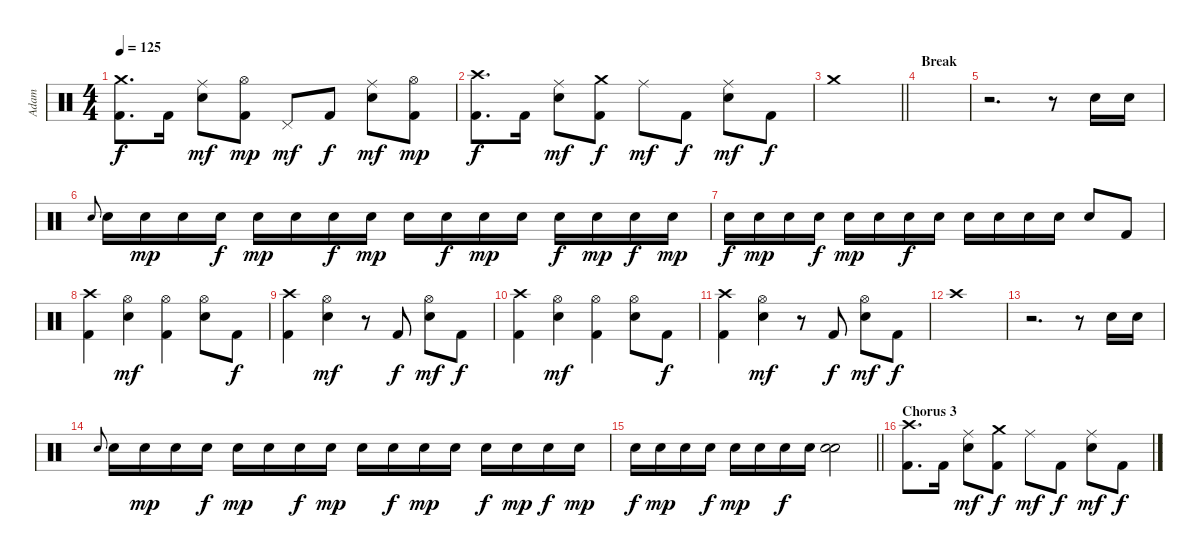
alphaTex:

\track ("Adam" "Adam") {instrument percussion}
\staff {score}
\articulation defaults
\ts (4 4)
\tempo 125
\clef neutral
\ks c
("Crash medium (hit)" "Kick (hit) 2").8{d dy f} "Kick (hit) 2".16 ("Ride (middle)" "Electric Snare (hit)").8{dy mf} ("Hi-Hat (open)" "Kick (hit) 2").8{dy mp} "Pedal Hi-Hat (hit)".8{dy mf} "Kick (hit) 2".8{dy f} ("Ride (middle)" "Electric Snare (hit)").8{dy mf} ("Hi-Hat (open)" "Kick (hit) 2").8{dy mp} |
("Crash high (hit)" "Kick (hit) 2").8{d dy f} "Kick (hit) 2".16 ("Ride (middle)" "Electric Snare (hit)").8{dy mf} ("Crash medium (hit)" "Kick (hit) 2").8{dy f} "Ride (middle)".8{dy mf} "Kick (hit) 2".8{dy f} ("Ride (middle)" "Electric Snare (hit)").8{dy mf} "Kick (hit) 2".8{dy f} |
\barLineRight lightlight "Crash medium (hit)".1
|
\section ("" "Break ")
|
r.2{d volume 11} r.8 "Electric Snare (hit)".16 "Electric Snare (hit)".16 |
"Electric Snare (hit)"{h}.8{gr onbeat} "Electric Snare (hit)".16 "Electric Snare (hit)".16{dy mp} "Electric Snare (hit)".16 "Electric Snare (hit)".16{dy f} "Electric Snare (hit)".16{dy mp} "Electric Snare (hit)".16 "Electric Snare (hit)".16{dy f} "Electric Snare (hit)".16{dy mp} "Electric Snare (hit)".16 "Electric Snare (hit)".16{dy f} "Electric Snare (hit)".16{dy mp} "Electric Snare (hit)".16 "Electric Snare (hit)".16{dy f} "Electric Snare (hit)".16{dy mp} "Electric Snare (hit)".16{dy f} "Electric Snare (hit)".16{dy mp} |
"Electric Snare (hit)".16{dy f volume 14} "Electric Snare (hit)".16{dy mp} "Electric Snare (hit)".16 "Electric Snare (hit)".16{dy f} "Electric Snare (hit)".16{dy mp} "Electric Snare (hit)".16 "Electric Snare (hit)".16{dy f} "Electric Snare (hit)".16 "Electric Snare (hit)".16 "Electric Snare (hit)".16 "Electric Snare (hit)".16 "Electric Snare (hit)".16 "Electric Snare (hit)".8 "Kick (hit) 2".8 |
("Crash high (hit)" "Kick (hit) 2").4 ("Hi-Hat (open)" "Electric Snare (hit)").4{dy mf} ("Hi-Hat (open)" "Kick (hit) 2").4 ("Hi-Hat (open)" "Electric Snare (hit)").8 "Kick (hit) 2".8{dy f} |
("Crash high (hit)" "Kick (hit) 2").4 ("Hi-Hat (open)" "Electric Snare (hit)").4{dy mf} r.8 "Kick (hit) 2".8{dy f} ("Hi-Hat (open)" "Electric Snare (hit)").8{dy mf} "Kick (hit) 2".8{dy f} |
("Crash high (hit)" "Kick (hit) 2").4 ("Hi-Hat (open)" "Electric Snare (hit)").4{dy mf} ("Hi-Hat (open)" "Kick (hit) 2").4 ("Hi-Hat (open)" "Electric Snare (hit)").8 "Kick (hit) 2".8{dy f} |
("Crash high (hit)" "Kick (hit) 2").4 ("Hi-Hat (open)" "Electric Snare (hit)").4{dy mf} r.8 "Kick (hit) 2".8{dy f} ("Hi-Hat (open)" "Electric Snare (hit)").8{dy mf} "Kick (hit) 2".8{dy f} |
"Crash high (hit)".1 |
r.2{d volume 11} r.8 "Electric Snare (hit)".16 "Electric Snare (hit)".16 |
"Electric Snare (hit)"{h}.8{gr onbeat} "Electric Snare (hit)".16 "Electric Snare (hit)".16{dy mp} "Electric Snare (hit)".16 "Electric Snare (hit)".16{dy f} "Electric Snare (hit)".16{dy mp} "Electric Snare (hit)".16 "Electric Snare (hit)".16{dy f} "Electric Snare (hit)".16{dy mp} "Electric Snare (hit)".16 "Electric Snare (hit)".16{dy f} "Electric Snare (hit)".16{dy mp} "Electric Snare (hit)".16 "Electric Snare (hit)".16{dy f} "Electric Snare (hit)".16{dy mp} "Electric Snare (hit)".16{dy f} "Electric Snare (hit)".16{dy mp} |
\barLineRight lightlight "Electric Snare (hit)".16{dy f volume 14} "Electric Snare (hit)".16{dy mp} "Electric Snare (hit)".16 "Electric Snare (hit)".16{dy f} "Electric Snare (hit)".16{dy mp} "Electric Snare (hit)".16 "Electric Snare (hit)".16{dy f} "Electric Snare (hit)".16
("Electric Snare (hit)" "Electric Snare (hit)").2 |
\section ("" "Chorus 3")
("Crash high (hit)" "Kick (hit) 2").8{d} "Kick (hit) 2".16 ("Ride (middle)" "Electric Snare (hit)").8{dy mf} ("Crash medium (hit)" "Kick (hit) 2").8{dy f} "Ride (middle)".8{dy mf} "Kick (hit) 2".8{dy f} ("Ride (middle)" "Electric Snare (hit)").8{dy mf} "Kick (hit) 2".8{dy f}
